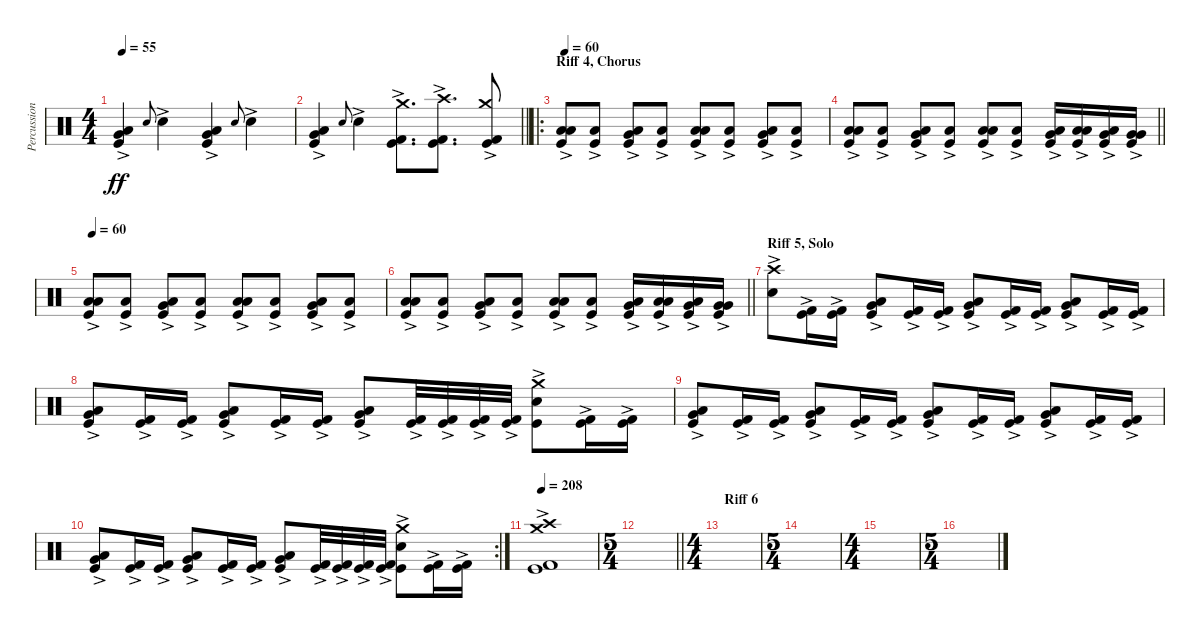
\track ("Percussion" "Percussion") {instrument percussion}
\staff {score}
\articulation defaults
\ts (4 4)
\tempo 55
\clef neutral
\ks c
("Low Floor Tom (hit)"{ac} "Very Low Tom (hit)"{ac} "Kick (hit)"{ac}).4{dy ff} "Snare (hit) 2"{h}.8{gr onbeat} "Snare (hit) 2"{ac}.4 ("Low Floor Tom (hit)"{ac} "Very Low Tom (hit)"{ac} "Kick (hit)"{ac}).4 "Snare (hit) 2".8{gr onbeat} "Snare (hit) 2"{ac}.4 |
\barLineRight lightlight
("Low Floor Tom (hit)"{ac} "Very Low Tom (hit)"{ac} "Kick (hit)"{ac}).4 "Snare (hit) 2".8{gr onbeat} "Snare (hit) 2"{ac}.4 ("Crash medium (hit)" "Kick (hit)"{ac} "Kick (hit) 2"{ac}).8{d} ("Crash high (hit)" "Kick (hit)"{ac} "Kick (hit) 2"{ac}).8{d} ("Crash medium (hit)" "Kick (hit)"{ac} "Kick (hit) 2"{ac}).8 |
\ro
\section ("" "Riff 4, Chorus")
\tempo 60
("Kick (hit)"{ac} "Low Floor Tom (hit)"{ac} "Low Floor Tom (hit)"{ac}).8 ("Kick (hit)"{ac} "Low Floor Tom (hit)"{ac}).8 ("Kick (hit)"{ac} "Very Low Tom (hit)"{ac} "Low Floor Tom (hit)"{ac}).8 ("Kick (hit)"{ac} "Low Floor Tom (hit)").8 ("Kick (hit)"{ac} "Low Floor Tom (hit)"{ac} "Low Floor Tom (hit)"{ac}).8 ("Kick (hit)"{ac} "Low Floor Tom (hit)").8 ("Kick (hit)"{ac} "Very Low Tom (hit)"{ac} "Low Floor Tom (hit)"{ac}).8 ("Kick (hit)"{ac} "Low Floor Tom (hit)").8 |
\barLineRight lightlight
("Kick (hit)"{ac} "Low Floor Tom (hit)"{ac} "Low Floor Tom (hit)"{ac}).8 ("Kick (hit)"{ac} "Low Floor Tom (hit)"{ac}).8 ("Kick (hit)"{ac} "Very Low Tom (hit)"{ac} "Low Floor Tom (hit)"{ac}).8 ("Kick (hit)"{ac} "Low Floor Tom (hit)").8 ("Kick (hit)"{ac} "Low Floor Tom (hit)"{ac} "Low Floor Tom (hit)"{ac}).8 ("Kick (hit)"{ac} "Low Floor Tom (hit)").8 ("Kick (hit)"{ac} "Low Floor Tom (hit)"{ac} "Very Low Tom (hit)").16 ("Kick (hit)"{ac} "Low Floor Tom (hit)"{ac} "Low Floor Tom (hit)").16 ("Kick (hit)"{ac} "Low Floor Tom (hit)"{ac} "Very Low Tom (hit)").16 ("Kick (hit)"{ac} "Very Low Tom (hit)"{ac} "Very Low Tom (hit)").16 |
\tempo 60
("Kick (hit)"{ac} "Low Floor Tom (hit)"{ac} "Low Floor Tom (hit)"{ac}).8 ("Kick (hit)"{ac} "Low Floor Tom (hit)"{ac}).8 ("Kick (hit)"{ac} "Very Low Tom (hit)"{ac} "Low Floor Tom (hit)"{ac}).8 ("Kick (hit)"{ac} "Low Floor Tom (hit)").8 ("Kick (hit)"{ac} "Low Floor Tom (hit)"{ac} "Low Floor Tom (hit)"{ac}).8 ("Kick (hit)"{ac} "Low Floor Tom (hit)").8 ("Kick (hit)"{ac} "Very Low Tom (hit)"{ac} "Low Floor Tom (hit)"{ac}).8 ("Kick (hit)"{ac} "Low Floor Tom (hit)").8 |
\barLineRight lightlight
("Kick (hit)"{ac} "Low Floor Tom (hit)"{ac} "Low Floor Tom (hit)"{ac}).8 ("Kick (hit)"{ac} "Low Floor Tom (hit)"{ac}).8 ("Kick (hit)"{ac} "Very Low Tom (hit)"{ac} "Low Floor Tom (hit)"{ac}).8 ("Kick (hit)"{ac} "Low Floor Tom (hit)").8 ("Kick (hit)"{ac} "Low Floor Tom (hit)"{ac} "Low Floor Tom (hit)"{ac}).8 ("Kick (hit)"{ac} "Low Floor Tom (hit)").8 ("Kick (hit)"{ac} "Low Floor Tom (hit)"{ac} "Very Low Tom (hit)").16 ("Kick (hit)"{ac} "Low Floor Tom (hit)"{ac} "Low Floor Tom (hit)").16 ("Kick (hit)"{ac} "Low Floor Tom (hit)"{ac} "Very Low Tom (hit)").16 ("Kick (hit)"{ac} "Very Low Tom (hit)"{ac} "Very Low Tom (hit)").16 |
\section ("" "Riff 5, Solo")
("Snare (hit) 2"{ac} "Crash high (hit)").8{volume 16} ("Kick (hit)"{ac} "Kick (hit) 2"{ac}).16 ("Kick (hit)"{ac} "Kick (hit) 2"{ac}).16 ("Kick (hit)"{ac} "Low Floor Tom (hit)"{ac} "Very Low Tom (hit)"{ac}).8 ("Kick (hit)"{ac} "Kick (hit) 2"{ac}).16 ("Kick (hit)"{ac} "Kick (hit) 2"{ac}).16 ("Kick (hit)"{ac} "Low Floor Tom (hit)"{ac} "Very Low Tom (hit)"{ac}).8 ("Kick (hit)"{ac} "Kick (hit) 2"{ac}).16 ("Kick (hit)"{ac} "Kick (hit) 2"{ac}).16 ("Kick (hit)"{ac} "Low Floor Tom (hit)"{ac} "Very Low Tom (hit)"{ac}).8 ("Kick (hit)"{ac} "Kick (hit) 2"{ac}).16 ("Kick (hit)"{ac} "Kick (hit) 2"{ac}).16 |
("Kick (hit)"{ac} "Low Floor Tom (hit)"{ac} "Very Low Tom (hit)"{ac}).8 ("Kick (hit)"{ac} "Kick (hit) 2"{ac}).16 ("Kick (hit)"{ac} "Kick (hit) 2"{ac}).16 ("Kick (hit)"{ac} "Low Floor Tom (hit)"{ac} "Very Low Tom (hit)"{ac}).8 ("Kick (hit)"{ac} "Kick (hit) 2"{ac}).16 ("Kick (hit)"{ac} "Kick (hit) 2"{ac}).16 ("Kick (hit)"{ac} "Low Floor Tom (hit)"{ac} "Very Low Tom (hit)"{ac}).8 ("Kick (hit)"{ac} "Kick (hit) 2"{ac}).32 ("Kick (hit)"{ac} "Kick (hit) 2"{ac}).32 ("Kick (hit)"{ac} "Kick (hit) 2"{ac}).32 ("Kick (hit)"{ac} "Kick (hit) 2"{ac}).32 ("Kick (hit)"{ac} "Snare (hit) 2"{ac} "Crash medium (hit)"{ac}).8 ("Kick (hit)"{ac} "Kick (hit) 2"{ac}).16 ("Kick (hit)"{ac} "Kick (hit) 2"{ac}).16 |
("Kick (hit)"{ac} "Low Floor Tom (hit)"{ac} "Very Low Tom (hit)"{ac}).8 ("Kick (hit)"{ac} "Kick (hit) 2"{ac}).16 ("Kick (hit)"{ac} "Kick (hit) 2"{ac}).16 ("Kick (hit)"{ac} "Low Floor Tom (hit)"{ac} "Very Low Tom (hit)"{ac}).8 ("Kick (hit)"{ac} "Kick (hit) 2"{ac}).16 ("Kick (hit)"{ac} "Kick (hit) 2"{ac}).16 ("Kick (hit)"{ac} "Low Floor Tom (hit)"{ac} "Very Low Tom (hit)"{ac}).8 ("Kick (hit)"{ac} "Kick (hit) 2"{ac}).16 ("Kick (hit)"{ac} "Kick (hit) 2"{ac}).16 ("Kick (hit)"{ac} "Low Floor Tom (hit)"{ac} "Very Low Tom (hit)"{ac}).8 ("Kick (hit)"{ac} "Kick (hit) 2"{ac}).16 ("Kick (hit)"{ac} "Kick (hit) 2"{ac}).16 |
\rc 2
("Kick (hit)"{ac} "Low Floor Tom (hit)"{ac} "Very Low Tom (hit)"{ac}).8 ("Kick (hit)"{ac} "Kick (hit) 2"{ac}).16 ("Kick (hit)"{ac} "Kick (hit) 2"{ac}).16 ("Kick (hit)"{ac} "Low Floor Tom (hit)"{ac} "Very Low Tom (hit)"{ac}).8 ("Kick (hit)"{ac} "Kick (hit) 2"{ac}).16 ("Kick (hit)"{ac} "Kick (hit) 2"{ac}).16 ("Kick (hit)"{ac} "Low Floor Tom (hit)"{ac} "Very Low Tom (hit)"{ac}).8 ("Kick (hit)"{ac} "Kick (hit) 2"{ac}).32 ("Kick (hit)"{ac} "Kick (hit) 2"{ac}).32 ("Kick (hit)"{ac} "Kick (hit) 2"{ac}).32 ("Kick (hit)"{ac} "Kick (hit) 2"{ac}).32 ("Kick (hit)"{ac} "Snare (hit) 2"{ac} "Crash medium (hit)"{ac}).8 ("Kick (hit)"{ac} "Kick (hit) 2"{ac}).16 ("Kick (hit)"{ac} "Kick (hit) 2"{ac}).16 |
\tempo 208
("Kick (hit) 2"{ac} "Crash high (hit)" "Kick (hit)"{ac} "Crash medium (hit)").1{volume 14} |
\ts (5 4)
\barLineRight lightlight
|
\ts (4 4)
\section ("" "Riff 6")
|
\ts (5 4)
|
\ts (4 4)
|
\ts (5 4)
